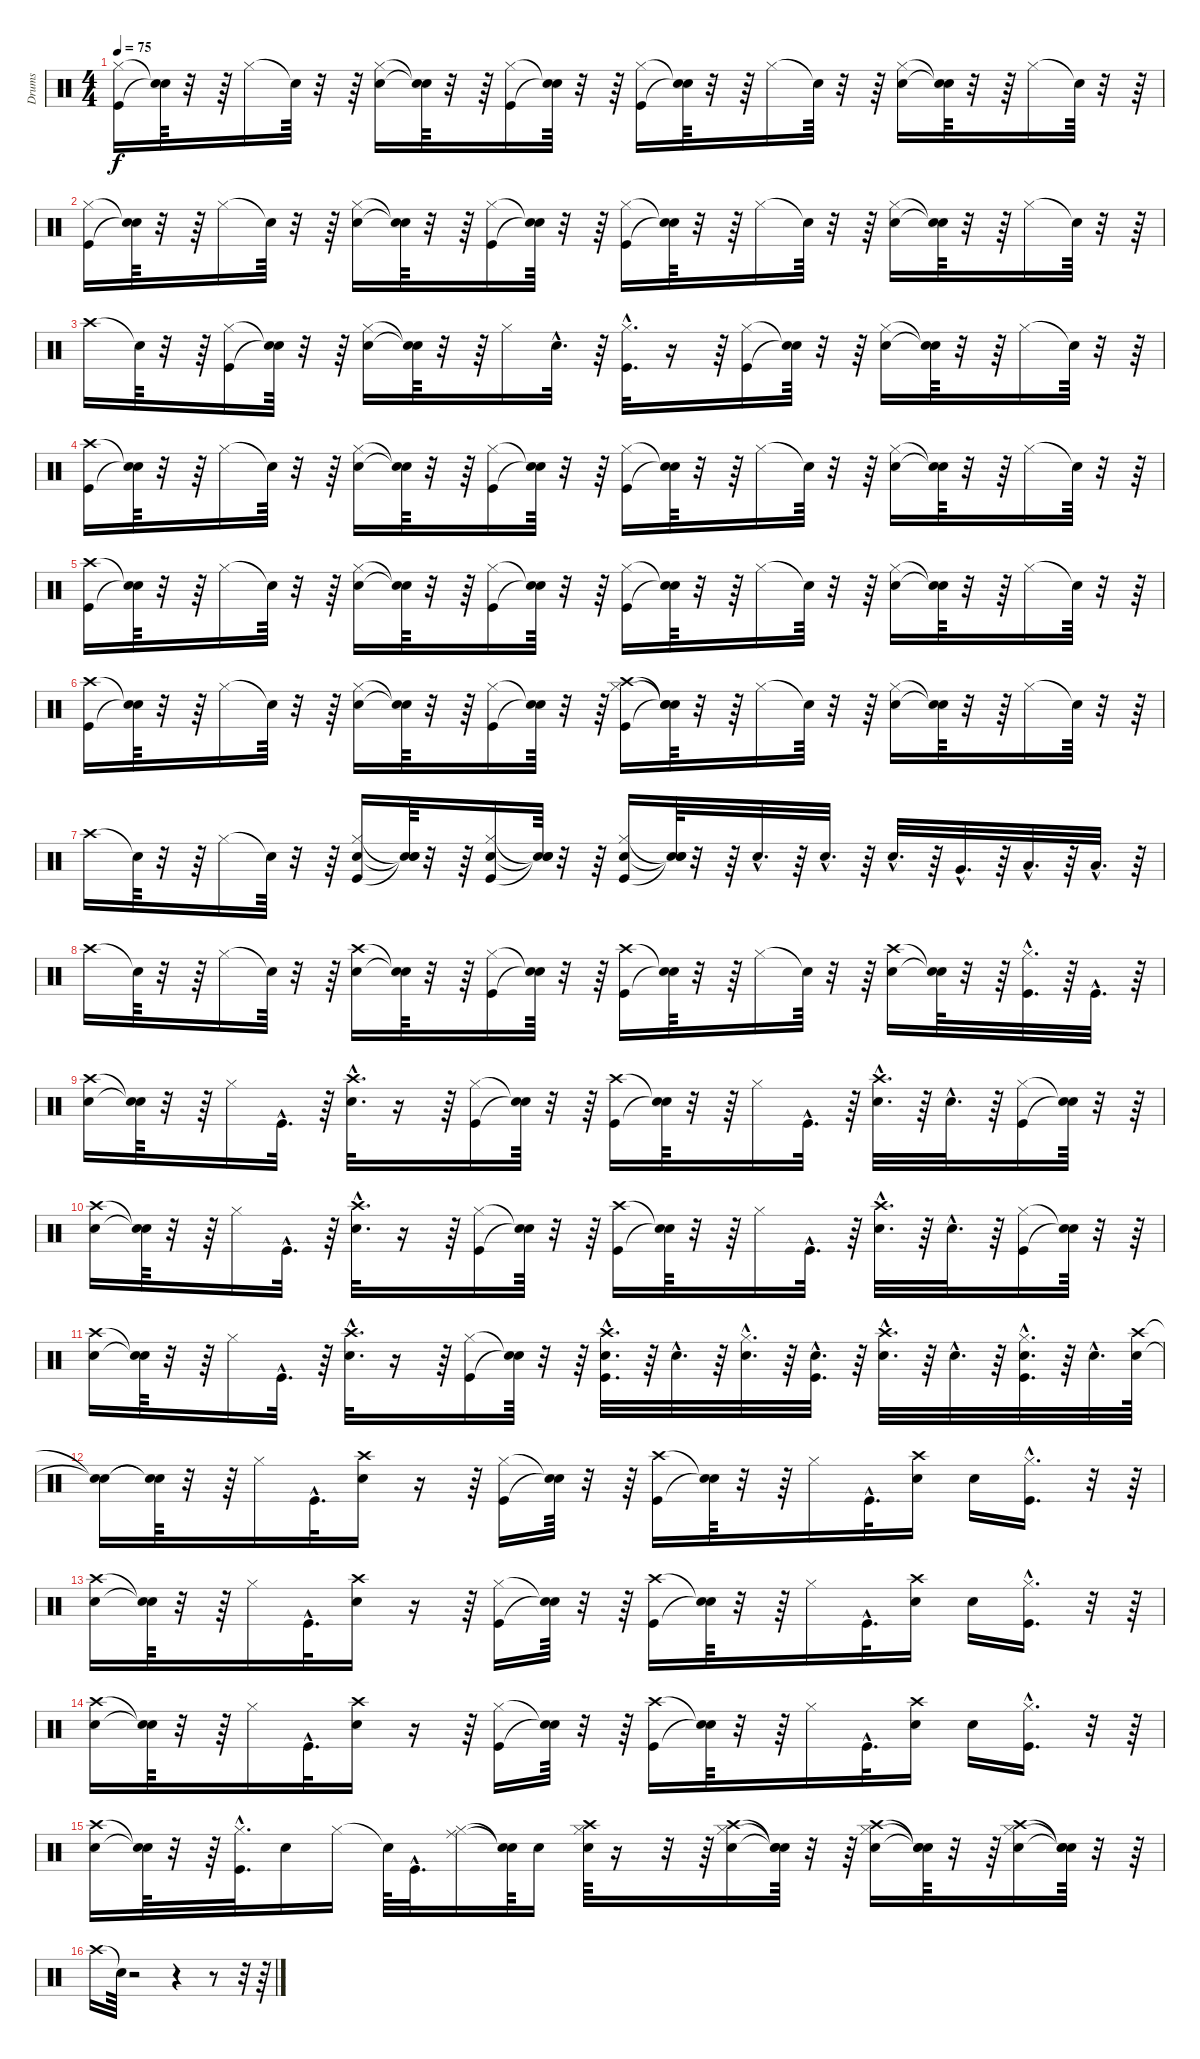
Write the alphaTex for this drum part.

\track ("Drums" "Drums") {instrument percussion}
\staff {score}
\articulation defaults
\ts (4 4)
\tempo 75
\clef neutral
\ks c
("Kick (hit)" "Hi-Hat (closed)").16{dy f} ("Snare (hit)"{t} "Snare (hit)"{t}).64 r.32 r.64 "Hi-Hat (closed)".16 "Snare (hit)"{t}.64 r.32 r.64 ("Snare (hit) 2" "Hi-Hat (closed)").16 ("Snare (hit)"{t} "Snare (hit)"{t}).64 r.32 r.64 ("Kick (hit)" "Hi-Hat (closed)").16 ("Snare (hit)"{t} "Snare (hit)"{t}).64 r.32 r.64 ("Kick (hit)" "Hi-Hat (closed)").16 ("Snare (hit)"{t} "Snare (hit)"{t}).64 r.32 r.64 "Hi-Hat (closed)".16 "Snare (hit)"{t}.64 r.32 r.64 ("Snare (hit) 2" "Hi-Hat (closed)").16 ("Snare (hit)"{t} "Snare (hit)"{t}).64 r.32 r.64 "Hi-Hat (closed)".16 "Snare (hit)"{t}.64 r.32 r.64 |
("Kick (hit)" "Hi-Hat (closed)").16 ("Snare (hit)"{t} "Snare (hit)"{t}).64 r.32 r.64 "Hi-Hat (closed)".16 "Snare (hit)"{t}.64 r.32 r.64 ("Snare (hit) 2" "Hi-Hat (closed)").16 ("Snare (hit)"{t} "Snare (hit)"{t}).64 r.32 r.64 ("Kick (hit)" "Hi-Hat (closed)").16 ("Snare (hit)"{t} "Snare (hit)"{t}).64 r.32 r.64 ("Kick (hit)" "Hi-Hat (closed)").16 ("Snare (hit)"{t} "Snare (hit)"{t}).64 r.32 r.64 "Hi-Hat (closed)".16 "Snare (hit)"{t}.64 r.32 r.64 ("Snare (hit) 2" "Hi-Hat (closed)").16 ("Snare (hit)"{t} "Snare (hit)"{t}).64 r.32 r.64 "Hi-Hat (closed)".16 "Snare (hit)"{t}.64 r.32 r.64 |
"Crash high (hit)".16 "Snare (hit)"{t}.64 r.32 r.64 ("Hi-Hat (closed)" "Kick (hit)").16 ("Snare (hit)"{t} "Snare (hit)"{t}).64 r.32 r.64 ("Hi-Hat (closed)" "Snare (hit) 2").16 ("Snare (hit)"{t} "Snare (hit)"{t}).64 r.32 r.64 "Hi-Hat (closed)".16 "Snare (hit) 2"{hac}.32{d} r.64 ("Hi-Hat (closed)"{hac} "Kick (hit)"{hac}).32{d} r.16 r.64 ("Hi-Hat (closed)" "Kick (hit)").16 ("Snare (hit)"{t} "Snare (hit)"{t}).64 r.32 r.64 ("Hi-Hat (closed)" "Snare (hit) 2").16 ("Snare (hit)"{t} "Snare (hit)"{t}).64 r.32 r.64 "Hi-Hat (closed)".16 "Snare (hit)"{t}.64 r.32 r.64 |
("Crash high (hit)" "Kick (hit)").16 ("Snare (hit)"{t} "Snare (hit)"{t}).64 r.32 r.64 "Hi-Hat (closed)".16 "Snare (hit)"{t}.64 r.32 r.64 ("Snare (hit) 2" "Hi-Hat (closed)").16 ("Snare (hit)"{t} "Snare (hit)"{t}).64 r.32 r.64 ("Kick (hit)" "Hi-Hat (closed)").16 ("Snare (hit)"{t} "Snare (hit)"{t}).64 r.32 r.64 ("Kick (hit)" "Hi-Hat (closed)").16 ("Snare (hit)"{t} "Snare (hit)"{t}).64 r.32 r.64 "Hi-Hat (closed)".16 "Snare (hit)"{t}.64 r.32 r.64 ("Hi-Hat (closed)" "Snare (hit) 2").16 ("Snare (hit)"{t} "Snare (hit)"{t}).64 r.32 r.64 "Hi-Hat (closed)".16 "Snare (hit)"{t}.64 r.32 r.64 |
("Kick (hit)" "Crash high (hit)").16 ("Snare (hit)"{t} "Snare (hit)"{t}).64 r.32 r.64 "Hi-Hat (closed)".16 "Snare (hit)"{t}.64 r.32 r.64 ("Snare (hit) 2" "Hi-Hat (closed)").16 ("Snare (hit)"{t} "Snare (hit)"{t}).64 r.32 r.64 ("Kick (hit)" "Hi-Hat (closed)").16 ("Snare (hit)"{t} "Snare (hit)"{t}).64 r.32 r.64 ("Kick (hit)" "Hi-Hat (closed)").16 ("Snare (hit)"{t} "Snare (hit)"{t}).64 r.32 r.64 "Hi-Hat (closed)".16 "Snare (hit)"{t}.64 r.32 r.64 ("Snare (hit) 2" "Hi-Hat (closed)").16 ("Snare (hit)"{t} "Snare (hit)"{t}).64 r.32 r.64 "Hi-Hat (closed)".16 "Snare (hit)"{t}.64 r.32 r.64 |
("Kick (hit)" "Crash high (hit)").16 ("Snare (hit)"{t} "Snare (hit)"{t}).64 r.32 r.64 "Hi-Hat (closed)".16 "Snare (hit)"{t}.64 r.32 r.64 ("Snare (hit) 2" "Hi-Hat (closed)").16 ("Snare (hit)"{t} "Snare (hit)"{t}).64 r.32 r.64 ("Kick (hit)" "Hi-Hat (closed)").16 ("Snare (hit)"{t} "Snare (hit)"{t}).64 r.32 r.64 ("Kick (hit)" "Hi-Hat (closed)" "Crash high (hit)").16 ("Snare (hit)"{t} "Snare (hit)"{t} "Snare (hit)"{t}).64 r.32 r.64 "Hi-Hat (closed)".16 "Snare (hit)"{t}.64 r.32 r.64 ("Snare (hit) 2" "Hi-Hat (closed)").16 ("Snare (hit)"{t} "Snare (hit)"{t}).64 r.32 r.64 "Hi-Hat (closed)".16 "Snare (hit)"{t}.64 r.32 r.64 |
"Crash high (hit)".16 "Snare (hit)"{t}.64 r.32 r.64 "Hi-Hat (closed)".16 "Snare (hit)"{t}.64 r.32 r.64 ("Kick (hit)" "Hi-Hat (closed)" "Snare (hit) 2").16 ("Snare (hit)"{t} "Snare (hit)"{t} "Snare (hit)"{t}).64 r.32 r.64 ("Kick (hit)" "Hi-Hat (closed)" "Snare (hit) 2").16 ("Snare (hit)"{t} "Snare (hit)"{t} "Snare (hit)"{t}).64 r.32 r.64 ("Kick (hit)" "Hi-Hat (closed)" "Snare (hit) 2").16 ("Snare (hit)"{t} "Snare (hit)"{t} "Snare (hit)"{t}).64 r.32 r.64 "Snare (hit) 2"{hac}.32{d} r.64 "Snare (hit) 2"{hac}.32{d} r.64 "Snare (hit) 2"{hac}.32{d} r.64 "Very Low Tom (hit)"{hac}.32{d} r.64 "Low Floor Tom (hit)"{hac}.32{d} r.64 "Low Floor Tom (hit)"{hac}.32{d} r.64 |
"Crash high (hit)".16 "Snare (hit)"{t}.64 r.32 r.64 "Hi-Hat (closed)".16 "Snare (hit)"{t}.64 r.32 r.64 ("Crash high (hit)" "Snare (hit) 2").16 ("Snare (hit)"{t} "Snare (hit)"{t}).64 r.32 r.64 ("Kick (hit)" "Hi-Hat (closed)").16 ("Snare (hit)"{t} "Snare (hit)"{t}).64 r.32 r.64 ("Crash high (hit)" "Kick (hit)").16 ("Snare (hit)"{t} "Snare (hit)"{t}).64 r.32 r.64 "Hi-Hat (closed)".16 "Snare (hit)"{t}.64 r.32 r.64 ("Crash high (hit)" "Snare (hit) 2").16 ("Snare (hit)"{t} "Snare (hit)"{t}).64 r.32 r.64 ("Hi-Hat (closed)"{hac} "Kick (hit)"{hac}).32{d} r.64 "Kick (hit)"{hac}.32{d} r.64 |
("Snare (hit) 2" "Crash high (hit)").16 ("Snare (hit)"{t} "Snare (hit)"{t}).64 r.32 r.64 "Hi-Hat (closed)".16 "Kick (hit)"{hac}.32{d} r.64 ("Crash high (hit)"{hac} "Snare (hit) 2"{hac}).32{d} r.16 r.64 ("Hi-Hat (closed)" "Kick (hit)").16 ("Snare (hit)"{t} "Snare (hit)"{t}).64 r.32 r.64 ("Crash high (hit)" "Kick (hit)").16 ("Snare (hit)"{t} "Snare (hit)"{t}).64 r.32 r.64 "Hi-Hat (closed)".16 "Kick (hit)"{hac}.32{d} r.64 ("Crash high (hit)"{hac} "Snare (hit) 2"{hac}).32{d} r.64 "Snare (hit) 2"{hac}.32{d} r.64 ("Hi-Hat (closed)" "Kick (hit)").16 ("Snare (hit)"{t} "Snare (hit)"{t}).64 r.32 r.64 |
("Snare (hit) 2" "Crash high (hit)").16 ("Snare (hit)"{t} "Snare (hit)"{t}).64 r.32 r.64 "Hi-Hat (closed)".16 "Kick (hit)"{hac}.32{d} r.64 ("Crash high (hit)"{hac} "Snare (hit) 2"{hac}).32{d} r.16 r.64 ("Hi-Hat (closed)" "Kick (hit)").16 ("Snare (hit)"{t} "Snare (hit)"{t}).64 r.32 r.64 ("Crash high (hit)" "Kick (hit)").16 ("Snare (hit)"{t} "Snare (hit)"{t}).64 r.32 r.64 "Hi-Hat (closed)".16 "Kick (hit)"{hac}.32{d} r.64 ("Crash high (hit)"{hac} "Snare (hit) 2"{hac}).32{d} r.64 "Snare (hit) 2"{hac}.32{d} r.64 ("Hi-Hat (closed)" "Kick (hit)").16 ("Snare (hit)"{t} "Snare (hit)"{t}).64 r.32 r.64 |
("Snare (hit) 2" "Crash high (hit)").16 ("Snare (hit)"{t} "Snare (hit)"{t}).64 r.32 r.64 "Hi-Hat (closed)".16 "Kick (hit)"{hac}.32{d} r.64 ("Crash high (hit)"{hac} "Snare (hit) 2"{hac}).32{d} r.16 r.64 ("Hi-Hat (closed)" "Kick (hit)").16 ("Snare (hit)"{t} "Snare (hit)"{t}).64 r.32 r.64 ("Snare (hit) 2"{hac} "Crash high (hit)"{hac} "Kick (hit)"{hac}).32{d} r.64 "Snare (hit) 2"{hac}.32{d} r.64 ("Snare (hit) 2"{hac} "Hi-Hat (closed)"{hac}).32{d} r.64 ("Snare (hit) 2"{hac} "Kick (hit)"{hac}).32{d} r.64 ("Snare (hit) 2"{hac} "Crash high (hit)"{hac}).32{d} r.64 "Snare (hit) 2"{hac}.32{d} r.64 ("Snare (hit) 2"{hac} "Hi-Hat (closed)"{hac} "Kick (hit)"{hac}).32{d} r.64 "Snare (hit) 2"{hac}.32{d} ("Snare (hit) 2" "Crash high (hit)").64 |
("Snare (hit)"{t} "Snare (hit)"{t}).16 ("Snare (hit)"{t} "Snare (hit)"{t}).64 r.32 r.64 "Hi-Hat (closed)".16 "Kick (hit)"{hac}.32{d} ("Crash high (hit)" "Snare (hit) 2").16 r.16 r.64 ("Hi-Hat (closed)" "Kick (hit)").16 ("Snare (hit)"{t} "Snare (hit)"{t}).64 r.32 r.64 ("Crash high (hit)" "Kick (hit)").16 ("Snare (hit)"{t} "Snare (hit)"{t}).64 r.32 r.64 "Hi-Hat (closed)".16 "Kick (hit)"{hac}.32{d} ("Crash high (hit)" "Snare (hit) 2").16 "Snare (hit) 2".16 ("Hi-Hat (closed)"{hac} "Kick (hit)"{hac}).16{d} r.32 r.64 |
("Snare (hit) 2" "Crash high (hit)").16 ("Snare (hit)"{t} "Snare (hit)"{t}).64 r.32 r.64 "Hi-Hat (closed)".16 "Kick (hit)"{hac}.32{d} ("Crash high (hit)" "Snare (hit) 2").16 r.16 r.64 ("Hi-Hat (closed)" "Kick (hit)").16 ("Snare (hit)"{t} "Snare (hit)"{t}).64 r.32 r.64 ("Crash high (hit)" "Kick (hit)").16 ("Snare (hit)"{t} "Snare (hit)"{t}).64 r.32 r.64 "Hi-Hat (closed)".16 "Kick (hit)"{hac}.32{d} ("Crash high (hit)" "Snare (hit) 2").16 "Snare (hit) 2".16 ("Hi-Hat (closed)"{hac} "Kick (hit)"{hac}).16{d} r.32 r.64 |
("Snare (hit) 2" "Crash high (hit)").16 ("Snare (hit)"{t} "Snare (hit)"{t}).64 r.32 r.64 "Hi-Hat (closed)".16 "Kick (hit)"{hac}.32{d} ("Crash high (hit)" "Snare (hit) 2").16 r.16 r.64 ("Hi-Hat (closed)" "Kick (hit)").16 ("Snare (hit)"{t} "Snare (hit)"{t}).64 r.32 r.64 ("Crash high (hit)" "Kick (hit)").16 ("Snare (hit)"{t} "Snare (hit)"{t}).64 r.32 r.64 "Hi-Hat (closed)".16 "Kick (hit)"{hac}.32{d} ("Crash high (hit)" "Snare (hit) 2").16 "Snare (hit) 2".16 ("Hi-Hat (closed)"{hac} "Kick (hit)"{hac}).16{d} r.32 r.64 |
("Crash high (hit)" "Snare (hit) 2").16 ("Snare (hit)"{t} "Snare (hit)"{t}).64 r.32 r.64 ("Kick (hit)"{hac} "Hi-Hat (closed)"{hac}).32{d} "Snare (hit) 2".16 "Hi-Hat (closed)".16 "Snare (hit)"{t}.64 "Kick (hit)"{hac}.32{d} ("Hi-Hat (closed)" "Ride (middle)").16 ("Snare (hit)"{t} "Snare (hit)"{t}).64 "Snare (hit) 2".16 ("Crash high (hit)" "Snare (hit) 2" "Hi-Hat (closed)").64 r.16 r.32 r.64 ("Crash high (hit)" "Snare (hit) 2" "Hi-Hat (closed)").16 ("Snare (hit)"{t} "Snare (hit)"{t} "Snare (hit)"{t}).64 r.32 r.64 ("Crash high (hit)" "Snare (hit) 2" "Hi-Hat (closed)").16 ("Snare (hit)"{t} "Snare (hit)"{t} "Snare (hit)"{t}).64 r.32 r.64 ("Crash high (hit)" "Snare (hit) 2" "Hi-Hat (closed)").16 ("Snare (hit)"{t} "Snare (hit)"{t} "Snare (hit)"{t}).64 r.32 r.64 |
"Crash high (hit)".16 "Snare (hit)"{t}.64 r.2 r.4 r.8 r.32 r.64
